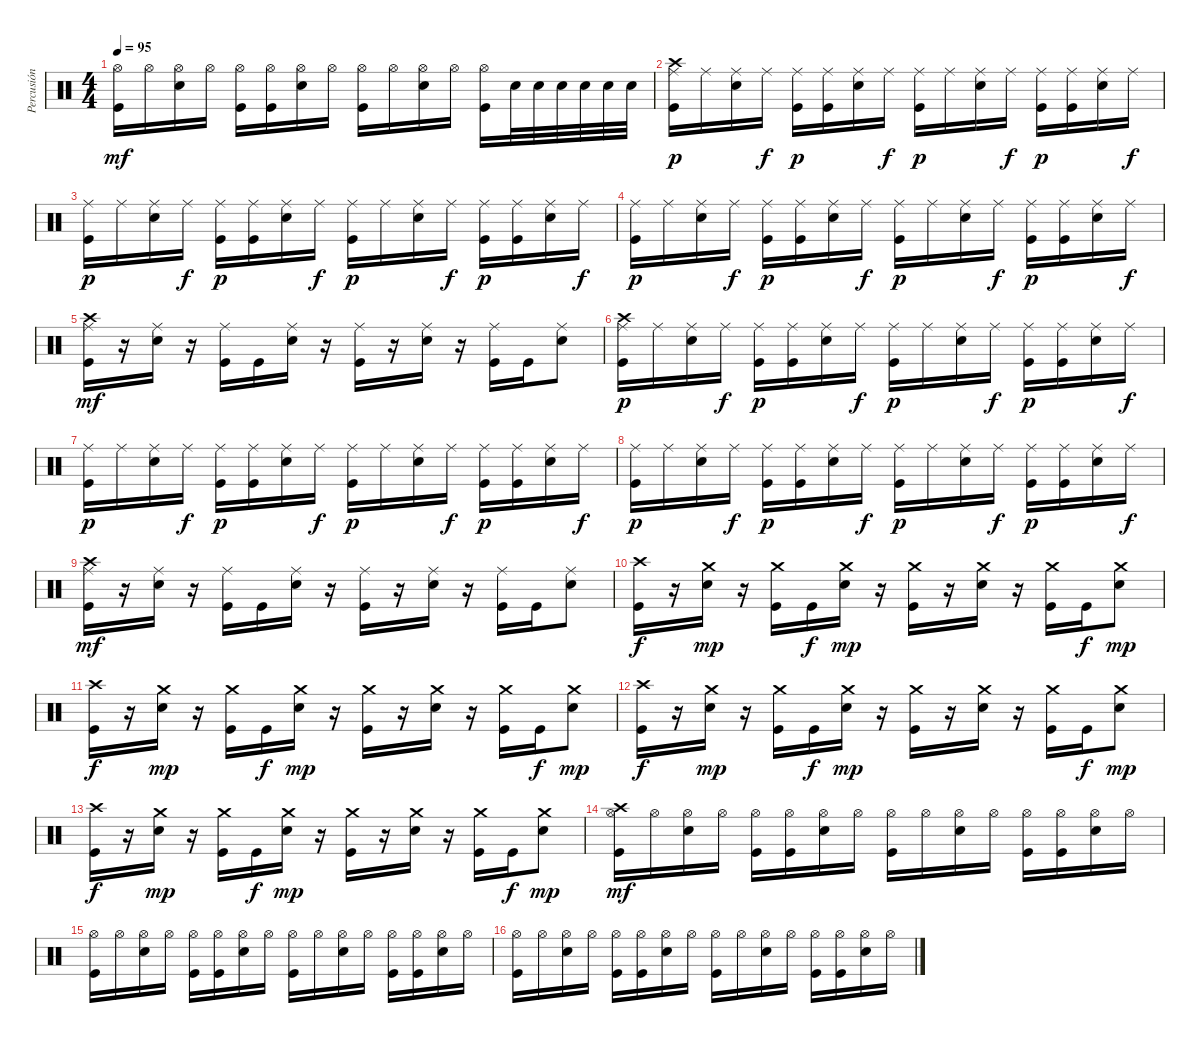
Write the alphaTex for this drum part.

\track ("Percusión" "Percusión") {instrument percussion}
\staff {score}
\articulation defaults
\ts (4 4)
\tempo 95
\clef neutral
\ks c
("Kick (hit)" "Hi-Hat (open)").16{dy mf} "Hi-Hat (open)".16 ("Snare (hit) 2" "Hi-Hat (open)").16 "Hi-Hat (open)".16 ("Kick (hit)" "Hi-Hat (open)").16 ("Kick (hit)" "Hi-Hat (open)").16 ("Snare (hit) 2" "Hi-Hat (open)").16 "Hi-Hat (open)".16 ("Kick (hit)" "Hi-Hat (open)").16 "Hi-Hat (open)".16 ("Snare (hit) 2" "Hi-Hat (open)").16 "Hi-Hat (open)".16 ("Kick (hit)" "Hi-Hat (open)").16 "Snare (hit) 2".32 "Snare (hit) 2".32 "Snare (hit) 2".32 "Snare (hit) 2".32 "Snare (hit) 2".32 "Snare (hit) 2".32 |
("Ride (middle)" "Kick (hit)" "Crash high (hit)").16{dy p} "Ride (middle)".16 ("Ride (middle)" "Snare (hit) 2").16 "Ride (middle)".16{dy f} ("Ride (middle)" "Kick (hit)").16{dy p} ("Ride (middle)" "Kick (hit)").16 ("Ride (middle)" "Snare (hit) 2").16 "Ride (middle)".16{dy f} ("Ride (middle)" "Kick (hit)").16{dy p} "Ride (middle)".16 ("Ride (middle)" "Snare (hit) 2").16 "Ride (middle)".16{dy f} ("Ride (middle)" "Kick (hit)").16{dy p} ("Ride (middle)" "Kick (hit)").16 ("Ride (middle)" "Snare (hit) 2").16 "Ride (middle)".16{dy f} |
("Ride (middle)" "Kick (hit)").16{dy p} "Ride (middle)".16 ("Ride (middle)" "Snare (hit) 2").16 "Ride (middle)".16{dy f} ("Ride (middle)" "Kick (hit)").16{dy p} ("Ride (middle)" "Kick (hit)").16 ("Ride (middle)" "Snare (hit) 2").16 "Ride (middle)".16{dy f} ("Ride (middle)" "Kick (hit)").16{dy p} "Ride (middle)".16 ("Ride (middle)" "Snare (hit) 2").16 "Ride (middle)".16{dy f} ("Ride (middle)" "Kick (hit)").16{dy p} ("Ride (middle)" "Kick (hit)").16 ("Ride (middle)" "Snare (hit) 2").16 "Ride (middle)".16{dy f} |
("Ride (middle)" "Kick (hit)").16{dy p} "Ride (middle)".16 ("Ride (middle)" "Snare (hit) 2").16 "Ride (middle)".16{dy f} ("Ride (middle)" "Kick (hit)").16{dy p} ("Ride (middle)" "Kick (hit)").16 ("Ride (middle)" "Snare (hit) 2").16 "Ride (middle)".16{dy f} ("Ride (middle)" "Kick (hit)").16{dy p} "Ride (middle)".16 ("Ride (middle)" "Snare (hit) 2").16 "Ride (middle)".16{dy f} ("Ride (middle)" "Kick (hit)").16{dy p} ("Ride (middle)" "Kick (hit)").16 ("Ride (middle)" "Snare (hit) 2").16 "Ride (middle)".16{dy f} |
("Ride (middle)" "Kick (hit)" "Crash high (hit)").16{dy mf} r.16 ("Ride (middle)" "Snare (hit) 2").16 r.16 ("Ride (middle)" "Kick (hit)").16 "Kick (hit)".16 ("Ride (middle)" "Snare (hit) 2").16 r.16 ("Ride (middle)" "Kick (hit)").16 r.16 ("Ride (middle)" "Snare (hit) 2").16 r.16 ("Ride (middle)" "Kick (hit)").16 "Kick (hit)".16 ("Ride (middle)" "Snare (hit) 2").8 |
("Ride (middle)" "Kick (hit)" "Crash high (hit)").16{dy p} "Ride (middle)".16 ("Ride (middle)" "Snare (hit) 2").16 "Ride (middle)".16{dy f} ("Ride (middle)" "Kick (hit)").16{dy p} ("Ride (middle)" "Kick (hit)").16 ("Ride (middle)" "Snare (hit) 2").16 "Ride (middle)".16{dy f} ("Ride (middle)" "Kick (hit)").16{dy p} "Ride (middle)".16 ("Ride (middle)" "Snare (hit) 2").16 "Ride (middle)".16{dy f} ("Ride (middle)" "Kick (hit)").16{dy p} ("Ride (middle)" "Kick (hit)").16 ("Ride (middle)" "Snare (hit) 2").16 "Ride (middle)".16{dy f} |
("Ride (middle)" "Kick (hit)").16{dy p} "Ride (middle)".16 ("Ride (middle)" "Snare (hit) 2").16 "Ride (middle)".16{dy f} ("Ride (middle)" "Kick (hit)").16{dy p} ("Ride (middle)" "Kick (hit)").16 ("Ride (middle)" "Snare (hit) 2").16 "Ride (middle)".16{dy f} ("Ride (middle)" "Kick (hit)").16{dy p} "Ride (middle)".16 ("Ride (middle)" "Snare (hit) 2").16 "Ride (middle)".16{dy f} ("Ride (middle)" "Kick (hit)").16{dy p} ("Ride (middle)" "Kick (hit)").16 ("Ride (middle)" "Snare (hit) 2").16 "Ride (middle)".16{dy f} |
("Ride (middle)" "Kick (hit)").16{dy p} "Ride (middle)".16 ("Ride (middle)" "Snare (hit) 2").16 "Ride (middle)".16{dy f} ("Ride (middle)" "Kick (hit)").16{dy p} ("Ride (middle)" "Kick (hit)").16 ("Ride (middle)" "Snare (hit) 2").16 "Ride (middle)".16{dy f} ("Ride (middle)" "Kick (hit)").16{dy p} "Ride (middle)".16 ("Ride (middle)" "Snare (hit) 2").16 "Ride (middle)".16{dy f} ("Ride (middle)" "Kick (hit)").16{dy p} ("Ride (middle)" "Kick (hit)").16 ("Ride (middle)" "Snare (hit) 2").16 "Ride (middle)".16{dy f} |
("Ride (middle)" "Kick (hit)" "Crash high (hit)").16{dy mf} r.16 ("Ride (middle)" "Snare (hit) 2").16 r.16 ("Ride (middle)" "Kick (hit)").16 "Kick (hit)".16 ("Ride (middle)" "Snare (hit) 2").16 r.16 ("Ride (middle)" "Kick (hit)").16 r.16 ("Ride (middle)" "Snare (hit) 2").16 r.16 ("Ride (middle)" "Kick (hit)").16 "Kick (hit)".16 ("Ride (middle)" "Snare (hit) 2").8 |
("Kick (hit)" "Crash high (hit)").16{dy f} r.16 ("Snare (hit) 2" "Crash medium (hit)").16{dy mp} r.16 ("Kick (hit)" "Crash medium (hit)").16 "Kick (hit)".16{dy f} ("Snare (hit) 2" "Crash medium (hit)").16{dy mp} r.16 ("Kick (hit)" "Crash medium (hit)").16 r.16 ("Snare (hit) 2" "Crash medium (hit)").16 r.16 ("Kick (hit)" "Crash medium (hit)").16 "Kick (hit)".16{dy f} ("Snare (hit) 2" "Crash medium (hit)").8{dy mp} |
("Kick (hit)" "Crash high (hit)").16{dy f} r.16 ("Snare (hit) 2" "Crash medium (hit)").16{dy mp} r.16 ("Kick (hit)" "Crash medium (hit)").16 "Kick (hit)".16{dy f} ("Snare (hit) 2" "Crash medium (hit)").16{dy mp} r.16 ("Kick (hit)" "Crash medium (hit)").16 r.16 ("Snare (hit) 2" "Crash medium (hit)").16 r.16 ("Kick (hit)" "Crash medium (hit)").16 "Kick (hit)".16{dy f} ("Snare (hit) 2" "Crash medium (hit)").8{dy mp} |
("Kick (hit)" "Crash high (hit)").16{dy f} r.16 ("Snare (hit) 2" "Crash medium (hit)").16{dy mp} r.16 ("Kick (hit)" "Crash medium (hit)").16 "Kick (hit)".16{dy f} ("Snare (hit) 2" "Crash medium (hit)").16{dy mp} r.16 ("Kick (hit)" "Crash medium (hit)").16 r.16 ("Snare (hit) 2" "Crash medium (hit)").16 r.16 ("Kick (hit)" "Crash medium (hit)").16 "Kick (hit)".16{dy f} ("Snare (hit) 2" "Crash medium (hit)").8{dy mp} |
("Kick (hit)" "Crash high (hit)").16{dy f} r.16 ("Snare (hit) 2" "Crash medium (hit)").16{dy mp} r.16 ("Kick (hit)" "Crash medium (hit)").16 "Kick (hit)".16{dy f} ("Snare (hit) 2" "Crash medium (hit)").16{dy mp} r.16 ("Kick (hit)" "Crash medium (hit)").16 r.16 ("Snare (hit) 2" "Crash medium (hit)").16 r.16 ("Kick (hit)" "Crash medium (hit)").16 "Kick (hit)".16{dy f} ("Snare (hit) 2" "Crash medium (hit)").8{dy mp} |
("Kick (hit)" "Hi-Hat (open)" "Crash high (hit)").16{dy mf} "Hi-Hat (open)".16 ("Snare (hit) 2" "Hi-Hat (open)").16 "Hi-Hat (open)".16 ("Kick (hit)" "Hi-Hat (open)").16 ("Kick (hit)" "Hi-Hat (open)").16 ("Snare (hit) 2" "Hi-Hat (open)").16 "Hi-Hat (open)".16 ("Kick (hit)" "Hi-Hat (open)").16 "Hi-Hat (open)".16 ("Snare (hit) 2" "Hi-Hat (open)").16 "Hi-Hat (open)".16 ("Kick (hit)" "Hi-Hat (open)").16 ("Kick (hit)" "Hi-Hat (open)").16 ("Snare (hit) 2" "Hi-Hat (open)").16 "Hi-Hat (open)".16 |
("Kick (hit)" "Hi-Hat (open)").16 "Hi-Hat (open)".16 ("Snare (hit) 2" "Hi-Hat (open)").16 "Hi-Hat (open)".16 ("Kick (hit)" "Hi-Hat (open)").16 ("Kick (hit)" "Hi-Hat (open)").16 ("Snare (hit) 2" "Hi-Hat (open)").16 "Hi-Hat (open)".16 ("Kick (hit)" "Hi-Hat (open)").16 "Hi-Hat (open)".16 ("Snare (hit) 2" "Hi-Hat (open)").16 "Hi-Hat (open)".16 ("Kick (hit)" "Hi-Hat (open)").16 ("Kick (hit)" "Hi-Hat (open)").16 ("Snare (hit) 2" "Hi-Hat (open)").16 "Hi-Hat (open)".16 |
("Kick (hit)" "Hi-Hat (open)").16 "Hi-Hat (open)".16 ("Snare (hit) 2" "Hi-Hat (open)").16 "Hi-Hat (open)".16 ("Kick (hit)" "Hi-Hat (open)").16 ("Kick (hit)" "Hi-Hat (open)").16 ("Snare (hit) 2" "Hi-Hat (open)").16 "Hi-Hat (open)".16 ("Kick (hit)" "Hi-Hat (open)").16 "Hi-Hat (open)".16 ("Snare (hit) 2" "Hi-Hat (open)").16 "Hi-Hat (open)".16 ("Kick (hit)" "Hi-Hat (open)").16 ("Kick (hit)" "Hi-Hat (open)").16 ("Snare (hit) 2" "Hi-Hat (open)").16 "Hi-Hat (open)".16
